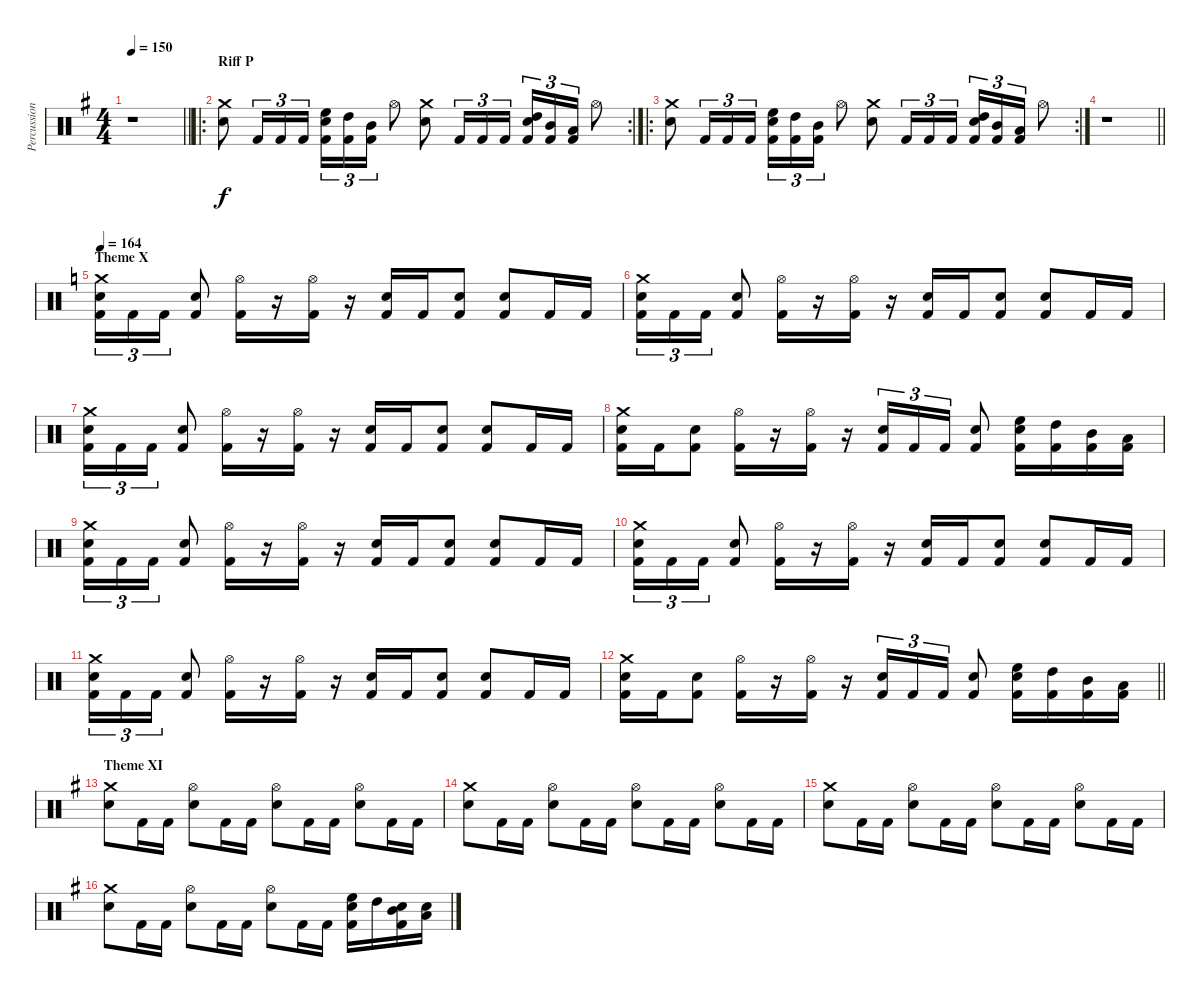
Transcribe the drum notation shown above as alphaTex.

\track ("Percussion" "Percussion") {instrument percussion}
\staff {score}
\articulation defaults
\ts (4 4)
\tempo 150
\clef neutral
\barLineRight lightlight
\ks eminor
r.1{dy ppp} |
\ro
\rc 2
\section ("" "Riff P")
("Crash medium (hit)" "Snare (hit) 2").8{dy f} "Kick (hit) 2".16{tu (3 2)} "Kick (hit) 2".16{tu (3 2)} "Kick (hit) 2".16{tu (3 2)} ("High Floor Tom (hit)" "Snare (hit) 2" "Kick (hit) 2").16{tu (3 2)} ("High Tom (hit)" "Kick (hit) 2").16{tu (3 2)} ("Mid Tom (hit)" "Kick (hit) 2").16{tu (3 2)} "Hi-Hat (open)".8 ("Crash medium (hit)" "Snare (hit) 2").8 "Kick (hit) 2".16{tu (3 2)} "Kick (hit) 2".16{tu (3 2)} "Kick (hit) 2".16{tu (3 2)} ("High Tom (hit)" "Snare (hit) 2" "Kick (hit) 2").16{tu (3 2)} ("Mid Tom (hit)" "Kick (hit) 2").16{tu (3 2)} ("Low Tom (hit)" "Kick (hit) 2").16{tu (3 2)} "Hi-Hat (open)".8 |
\ro
\rc 2
("Crash medium (hit)" "Snare (hit) 2").8 "Kick (hit) 2".16{tu (3 2)} "Kick (hit) 2".16{tu (3 2)} "Kick (hit) 2".16{tu (3 2)} ("High Floor Tom (hit)" "Snare (hit) 2" "Kick (hit) 2").16{tu (3 2)} ("High Tom (hit)" "Kick (hit) 2").16{tu (3 2)} ("Mid Tom (hit)" "Kick (hit) 2").16{tu (3 2)} "Hi-Hat (open)".8 ("Crash medium (hit)" "Snare (hit) 2").8 "Kick (hit) 2".16{tu (3 2)} "Kick (hit) 2".16{tu (3 2)} "Kick (hit) 2".16{tu (3 2)} ("High Tom (hit)" "Snare (hit) 2" "Kick (hit) 2").16{tu (3 2)} ("Mid Tom (hit)" "Kick (hit) 2").16{tu (3 2)} ("Low Tom (hit)" "Kick (hit) 2").16{tu (3 2)} "Hi-Hat (open)".8 |
\barLineRight lightlight
r.1 |
\section ("" "Theme X")
\tempo 164
\ks aminor
("Crash medium (hit)" "Snare (hit) 2" "Kick (hit) 2").16{tu (3 2)} "Kick (hit) 2".16{tu (3 2)} "Kick (hit) 2".16{tu (3 2)} ("Snare (hit) 2" "Kick (hit) 2").8 ("Hi-Hat (open)" "Kick (hit) 2").16 r.16 ("Hi-Hat (open)" "Kick (hit) 2").16 r.16 ("Snare (hit) 2" "Kick (hit) 2").16 "Kick (hit) 2".16 ("Snare (hit) 2" "Kick (hit) 2").8 ("Snare (hit) 2" "Kick (hit) 2").8 "Kick (hit) 2".16 "Kick (hit) 2".16 |
("Crash medium (hit)" "Snare (hit) 2" "Kick (hit) 2").16{tu (3 2)} "Kick (hit) 2".16{tu (3 2)} "Kick (hit) 2".16{tu (3 2)} ("Snare (hit) 2" "Kick (hit) 2").8 ("Hi-Hat (open)" "Kick (hit) 2").16 r.16 ("Hi-Hat (open)" "Kick (hit) 2").16 r.16 ("Snare (hit) 2" "Kick (hit) 2").16 "Kick (hit) 2".16 ("Snare (hit) 2" "Kick (hit) 2").8 ("Snare (hit) 2" "Kick (hit) 2").8 "Kick (hit) 2".16 "Kick (hit) 2".16 |
("Crash medium (hit)" "Snare (hit) 2" "Kick (hit) 2").16{tu (3 2)} "Kick (hit) 2".16{tu (3 2)} "Kick (hit) 2".16{tu (3 2)} ("Snare (hit) 2" "Kick (hit) 2").8 ("Hi-Hat (open)" "Kick (hit) 2").16 r.16 ("Hi-Hat (open)" "Kick (hit) 2").16 r.16 ("Snare (hit) 2" "Kick (hit) 2").16 "Kick (hit) 2".16 ("Snare (hit) 2" "Kick (hit) 2").8 ("Snare (hit) 2" "Kick (hit) 2").8 "Kick (hit) 2".16 "Kick (hit) 2".16 |
("Crash medium (hit)" "Snare (hit) 2" "Kick (hit) 2").16 "Kick (hit) 2".16 ("Snare (hit) 2" "Kick (hit) 2").8 ("Hi-Hat (open)" "Kick (hit) 2").16 r.16 ("Hi-Hat (open)" "Kick (hit) 2").16 r.16 ("Snare (hit) 2" "Kick (hit) 2").16{tu (3 2)} "Kick (hit) 2".16{tu (3 2)} "Kick (hit) 2".16{tu (3 2)} ("Snare (hit) 2" "Kick (hit) 2").8 ("High Floor Tom (hit)" "Snare (hit) 2" "Kick (hit) 2").16 ("High Tom (hit)" "Kick (hit) 2").16 ("Mid Tom (hit)" "Kick (hit) 2").16 ("Low Tom (hit)" "Kick (hit) 2").16 |
("Crash medium (hit)" "Snare (hit) 2" "Kick (hit) 2").16{tu (3 2)} "Kick (hit) 2".16{tu (3 2)} "Kick (hit) 2".16{tu (3 2)} ("Snare (hit) 2" "Kick (hit) 2").8 ("Hi-Hat (open)" "Kick (hit) 2").16 r.16 ("Hi-Hat (open)" "Kick (hit) 2").16 r.16 ("Snare (hit) 2" "Kick (hit) 2").16 "Kick (hit) 2".16 ("Snare (hit) 2" "Kick (hit) 2").8 ("Snare (hit) 2" "Kick (hit) 2").8 "Kick (hit) 2".16 "Kick (hit) 2".16 |
("Crash medium (hit)" "Snare (hit) 2" "Kick (hit) 2").16{tu (3 2)} "Kick (hit) 2".16{tu (3 2)} "Kick (hit) 2".16{tu (3 2)} ("Snare (hit) 2" "Kick (hit) 2").8 ("Hi-Hat (open)" "Kick (hit) 2").16 r.16 ("Hi-Hat (open)" "Kick (hit) 2").16 r.16 ("Snare (hit) 2" "Kick (hit) 2").16 "Kick (hit) 2".16 ("Snare (hit) 2" "Kick (hit) 2").8 ("Snare (hit) 2" "Kick (hit) 2").8 "Kick (hit) 2".16 "Kick (hit) 2".16 |
("Crash medium (hit)" "Snare (hit) 2" "Kick (hit) 2").16{tu (3 2)} "Kick (hit) 2".16{tu (3 2)} "Kick (hit) 2".16{tu (3 2)} ("Snare (hit) 2" "Kick (hit) 2").8 ("Hi-Hat (open)" "Kick (hit) 2").16 r.16 ("Hi-Hat (open)" "Kick (hit) 2").16 r.16 ("Snare (hit) 2" "Kick (hit) 2").16 "Kick (hit) 2".16 ("Snare (hit) 2" "Kick (hit) 2").8 ("Snare (hit) 2" "Kick (hit) 2").8 "Kick (hit) 2".16 "Kick (hit) 2".16 |
\barLineRight lightlight
("Crash medium (hit)" "Snare (hit) 2" "Kick (hit) 2").16 "Kick (hit) 2".16 ("Snare (hit) 2" "Kick (hit) 2").8 ("Hi-Hat (open)" "Kick (hit) 2").16 r.16 ("Hi-Hat (open)" "Kick (hit) 2").16 r.16 ("Snare (hit) 2" "Kick (hit) 2").16{tu (3 2)} "Kick (hit) 2".16{tu (3 2)} "Kick (hit) 2".16{tu (3 2)} ("Snare (hit) 2" "Kick (hit) 2").8 ("High Floor Tom (hit)" "Snare (hit) 2" "Kick (hit) 2").16 ("High Tom (hit)" "Kick (hit) 2").16 ("Mid Tom (hit)" "Kick (hit) 2").16 ("Low Tom (hit)" "Kick (hit) 2").16 |
\section ("" "Theme XI")
\ks eminor
("Crash medium (hit)" "Snare (hit) 2").8 "Kick (hit) 2".16 "Kick (hit) 2".16 ("Hi-Hat (open)" "Snare (hit) 2").8 "Kick (hit) 2".16 "Kick (hit) 2".16 ("Hi-Hat (open)" "Snare (hit) 2").8 "Kick (hit) 2".16 "Kick (hit) 2".16 ("Hi-Hat (open)" "Snare (hit) 2").8 "Kick (hit) 2".16 "Kick (hit) 2".16 |
("Crash medium (hit)" "Snare (hit) 2").8 "Kick (hit) 2".16 "Kick (hit) 2".16 ("Hi-Hat (open)" "Snare (hit) 2").8 "Kick (hit) 2".16 "Kick (hit) 2".16 ("Hi-Hat (open)" "Snare (hit) 2").8 "Kick (hit) 2".16 "Kick (hit) 2".16 ("Hi-Hat (open)" "Snare (hit) 2").8 "Kick (hit) 2".16 "Kick (hit) 2".16 |
("Crash medium (hit)" "Snare (hit) 2").8 "Kick (hit) 2".16 "Kick (hit) 2".16 ("Hi-Hat (open)" "Snare (hit) 2").8 "Kick (hit) 2".16 "Kick (hit) 2".16 ("Hi-Hat (open)" "Snare (hit) 2").8 "Kick (hit) 2".16 "Kick (hit) 2".16 ("Hi-Hat (open)" "Snare (hit) 2").8 "Kick (hit) 2".16 "Kick (hit) 2".16 |
("Crash medium (hit)" "Snare (hit) 2").8 "Kick (hit) 2".16 "Kick (hit) 2".16 ("Hi-Hat (open)" "Snare (hit) 2").8 "Kick (hit) 2".16 "Kick (hit) 2".16 ("Hi-Hat (open)" "Snare (hit) 2").8 "Kick (hit) 2".16 "Kick (hit) 2".16 ("High Floor Tom (hit)" "Snare (hit) 2" "Kick (hit) 2").16 "High Tom (hit)".16 ("Mid Tom (hit)" "Snare (hit) 2" "Kick (hit) 2").16 ("Low Tom (hit)" "Snare (hit) 2").16
